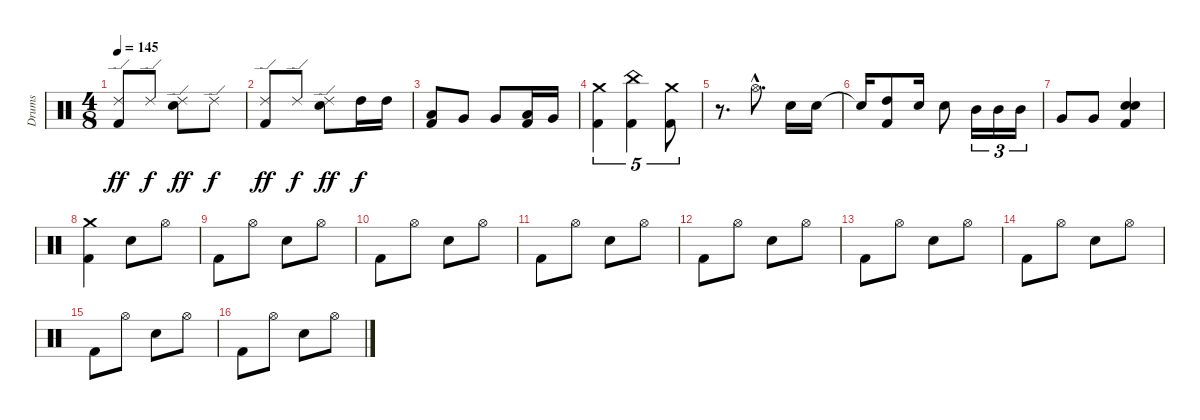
\track ("Drums" "Drums") {instrument percussion}
\staff {score}
\articulation defaults
\ts (4 8)
\tempo 145
\clef neutral
\ks c
("Ride (edge) 2" "Kick (hit) 2").8{dy ff} "Ride (edge) 2".8{dy f} ("Ride (edge) 2" "Snare (hit) 2").8{dy ff} "Ride (edge) 2".8{dy f} |
("Ride (edge) 2" "Kick (hit) 2").8{dy ff} "Ride (edge) 2".8{dy f} ("Ride (edge) 2" "Snare (hit) 2").8{dy ff} "High Tom (hit)".16{dy f} "High Tom (hit)".16 |
("Low Floor Tom (hit)" "Kick (hit) 2").8 "Very Low Tom (hit)".8 "Very Low Tom (hit)".8 ("Low Tom (hit)" "Kick (hit) 2").16 "Very Low Tom (hit)".16 |
("Crash medium (hit)" "Kick (hit) 2").4{tu (5 4)} ("China (hit)" "Kick (hit) 2").4{tu (5 4)} ("Crash medium (hit)" "Kick (hit) 2").8{tu (5 4)} |
r.8{d} "Hi-Hat (open)"{hac}.8{d} "Snare (hit) 2".16 "Snare (hit) 2".16 |
"Snare (hit)"{t}.16 ("High Tom (hit)" "Kick (hit) 2").8 "Snare (hit) 2".16 "Snare (hit) 2".8 "Mid Tom (hit)".16{tu (3 2)} "Mid Tom (hit)".16{tu (3 2)} "Mid Tom (hit)".16{tu (3 2)} |
"Very Low Tom (hit)".8 "Very Low Tom (hit)".8 ("Snare (hit) 2" "Snare (hit) 2" "Kick (hit) 2").4 |
("Crash medium (hit)" "Kick (hit) 2").4 "Snare (hit) 2".8 "Hi-Hat (open)".8 |
"Kick (hit) 2".8 "Hi-Hat (open)".8 "Snare (hit) 2".8 "Hi-Hat (open)".8 |
"Kick (hit) 2".8 "Hi-Hat (open)".8 "Snare (hit) 2".8 "Hi-Hat (open)".8 |
"Kick (hit) 2".8 "Hi-Hat (open)".8 "Snare (hit) 2".8 "Hi-Hat (open)".8 |
"Kick (hit) 2".8 "Hi-Hat (open)".8 "Snare (hit) 2".8 "Hi-Hat (open)".8 |
"Kick (hit) 2".8 "Hi-Hat (open)".8 "Snare (hit) 2".8 "Hi-Hat (open)".8 |
"Kick (hit) 2".8 "Hi-Hat (open)".8 "Snare (hit) 2".8 "Hi-Hat (open)".8 |
"Kick (hit) 2".8 "Hi-Hat (open)".8 "Snare (hit) 2".8 "Hi-Hat (open)".8 |
"Kick (hit) 2".8 "Hi-Hat (open)".8 "Snare (hit) 2".8 "Hi-Hat (open)".8
